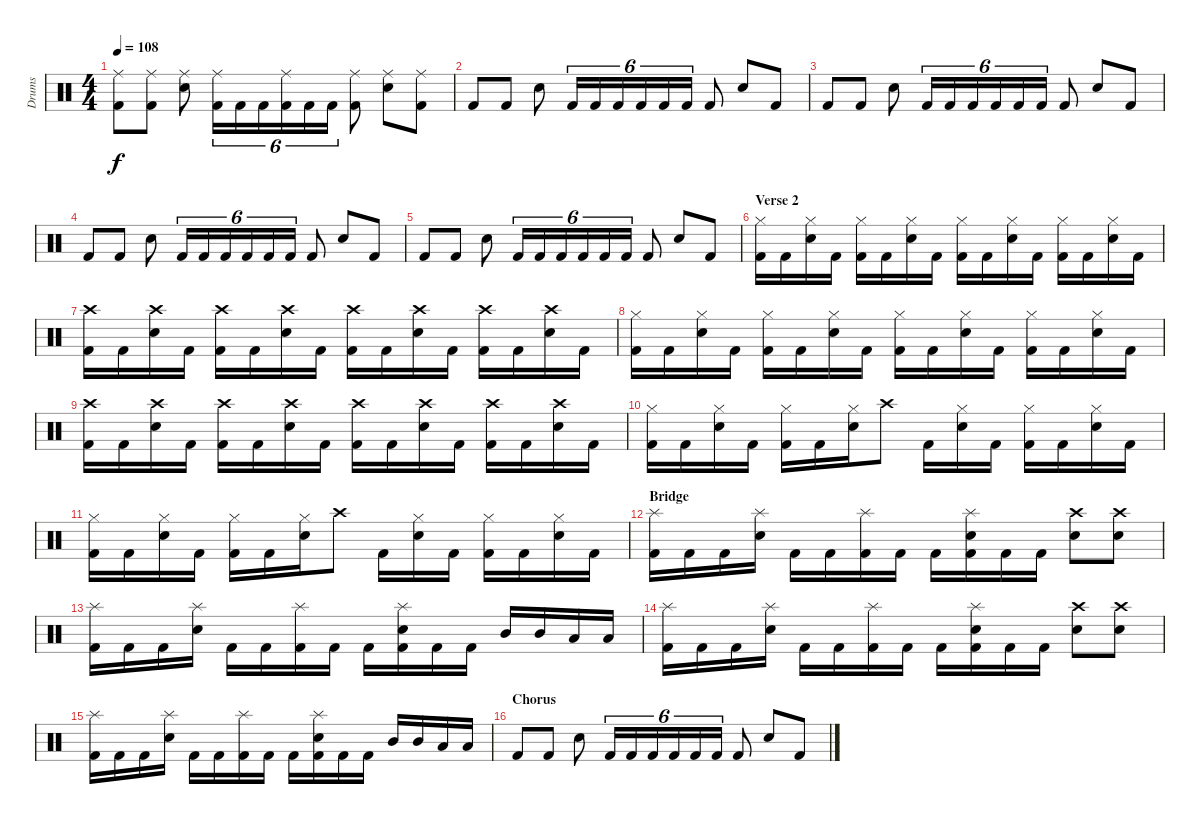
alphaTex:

\track ("Drums" "Drums") {instrument percussion}
\staff {score}
\articulation defaults
\ts (4 4)
\tempo 108
\clef neutral
\ks c
("Ride (middle)" "Kick (hit) 2").8{dy f} ("Ride (middle)" "Kick (hit) 2").8 ("Ride (middle)" "Electric Snare (hit)").8 ("Ride (middle)" "Kick (hit) 2").16{tu (6 4)} "Kick (hit) 2".16{tu (6 4)} "Kick (hit) 2".16{tu (6 4)} ("Ride (middle)" "Kick (hit) 2").16{tu (6 4)} "Kick (hit) 2".16{tu (6 4)} "Kick (hit) 2".16{tu (6 4)} ("Ride (middle)" "Kick (hit) 2").8 ("Ride (middle)" "Electric Snare (hit)").8 ("Ride (middle)" "Kick (hit) 2").8 |
"Kick (hit) 2".8 "Kick (hit) 2".8 "Electric Snare (hit)".8 "Kick (hit) 2".16{tu (6 4)} "Kick (hit) 2".16{tu (6 4)} "Kick (hit) 2".16{tu (6 4)} "Kick (hit) 2".16{tu (6 4)} "Kick (hit) 2".16{tu (6 4)} "Kick (hit) 2".16{tu (6 4)} "Kick (hit) 2".8 "Electric Snare (hit)".8 "Kick (hit) 2".8 |
"Kick (hit) 2".8 "Kick (hit) 2".8 "Electric Snare (hit)".8 "Kick (hit) 2".16{tu (6 4)} "Kick (hit) 2".16{tu (6 4)} "Kick (hit) 2".16{tu (6 4)} "Kick (hit) 2".16{tu (6 4)} "Kick (hit) 2".16{tu (6 4)} "Kick (hit) 2".16{tu (6 4)} "Kick (hit) 2".8 "Electric Snare (hit)".8 "Kick (hit) 2".8 |
"Kick (hit) 2".8 "Kick (hit) 2".8 "Electric Snare (hit)".8 "Kick (hit) 2".16{tu (6 4)} "Kick (hit) 2".16{tu (6 4)} "Kick (hit) 2".16{tu (6 4)} "Kick (hit) 2".16{tu (6 4)} "Kick (hit) 2".16{tu (6 4)} "Kick (hit) 2".16{tu (6 4)} "Kick (hit) 2".8 "Electric Snare (hit)".8 "Kick (hit) 2".8 |
"Kick (hit) 2".8 "Kick (hit) 2".8 "Electric Snare (hit)".8 "Kick (hit) 2".16{tu (6 4)} "Kick (hit) 2".16{tu (6 4)} "Kick (hit) 2".16{tu (6 4)} "Kick (hit) 2".16{tu (6 4)} "Kick (hit) 2".16{tu (6 4)} "Kick (hit) 2".16{tu (6 4)} "Kick (hit) 2".8 "Electric Snare (hit)".8 "Kick (hit) 2".8 |
\section ("" "Verse 2")
("Hi-Hat (closed)" "Kick (hit) 2").16 "Kick (hit) 2".16 ("Hi-Hat (closed)" "Electric Snare (hit)").16 "Kick (hit) 2".16 ("Hi-Hat (closed)" "Kick (hit) 2").16 "Kick (hit) 2".16 ("Hi-Hat (closed)" "Electric Snare (hit)").16 "Kick (hit) 2".16 ("Hi-Hat (closed)" "Kick (hit) 2").16 "Kick (hit) 2".16 ("Hi-Hat (closed)" "Electric Snare (hit)").16 "Kick (hit) 2".16 ("Hi-Hat (closed)" "Kick (hit) 2").16 "Kick (hit) 2".16 ("Hi-Hat (closed)" "Electric Snare (hit)").16 "Kick (hit) 2".16 |
("Crash high (hit)" "Kick (hit) 2").16 "Kick (hit) 2".16 ("Crash high (hit)" "Electric Snare (hit)").16 "Kick (hit) 2".16 ("Crash high (hit)" "Kick (hit) 2").16 "Kick (hit) 2".16 ("Crash high (hit)" "Electric Snare (hit)").16 "Kick (hit) 2".16 ("Crash high (hit)" "Kick (hit) 2").16 "Kick (hit) 2".16 ("Crash high (hit)" "Electric Snare (hit)").16 "Kick (hit) 2".16 ("Crash high (hit)" "Kick (hit) 2").16 "Kick (hit) 2".16 ("Crash high (hit)" "Electric Snare (hit)").16 "Kick (hit) 2".16 |
("Hi-Hat (closed)" "Kick (hit) 2").16 "Kick (hit) 2".16 ("Hi-Hat (closed)" "Electric Snare (hit)").16 "Kick (hit) 2".16 ("Hi-Hat (closed)" "Kick (hit) 2").16 "Kick (hit) 2".16 ("Hi-Hat (closed)" "Electric Snare (hit)").16 "Kick (hit) 2".16 ("Hi-Hat (closed)" "Kick (hit) 2").16 "Kick (hit) 2".16 ("Hi-Hat (closed)" "Electric Snare (hit)").16 "Kick (hit) 2".16 ("Hi-Hat (closed)" "Kick (hit) 2").16 "Kick (hit) 2".16 ("Hi-Hat (closed)" "Electric Snare (hit)").16 "Kick (hit) 2".16 |
("Crash high (hit)" "Kick (hit) 2").16 "Kick (hit) 2".16 ("Crash high (hit)" "Electric Snare (hit)").16 "Kick (hit) 2".16 ("Crash high (hit)" "Kick (hit) 2").16 "Kick (hit) 2".16 ("Crash high (hit)" "Electric Snare (hit)").16 "Kick (hit) 2".16 ("Crash high (hit)" "Kick (hit) 2").16 "Kick (hit) 2".16 ("Crash high (hit)" "Electric Snare (hit)").16 "Kick (hit) 2".16 ("Crash high (hit)" "Kick (hit) 2").16 "Kick (hit) 2".16 ("Crash high (hit)" "Electric Snare (hit)").16 "Kick (hit) 2".16 |
("Hi-Hat (closed)" "Kick (hit) 2").16 "Kick (hit) 2".16 ("Hi-Hat (closed)" "Electric Snare (hit)").16 "Kick (hit) 2".16 ("Hi-Hat (closed)" "Kick (hit) 2").16 "Kick (hit) 2".16 ("Hi-Hat (closed)" "Electric Snare (hit)").16 "Crash high (hit)".8 "Kick (hit) 2".16 ("Hi-Hat (closed)" "Electric Snare (hit)").16 "Kick (hit) 2".16 ("Hi-Hat (closed)" "Kick (hit) 2").16 "Kick (hit) 2".16 ("Hi-Hat (closed)" "Electric Snare (hit)").16 "Kick (hit) 2".16 |
("Hi-Hat (closed)" "Kick (hit) 2").16 "Kick (hit) 2".16 ("Hi-Hat (closed)" "Electric Snare (hit)").16 "Kick (hit) 2".16 ("Hi-Hat (closed)" "Kick (hit) 2").16 "Kick (hit) 2".16 ("Hi-Hat (closed)" "Electric Snare (hit)").16 "Crash high (hit)".8 "Kick (hit) 2".16 ("Hi-Hat (closed)" "Electric Snare (hit)").16 "Kick (hit) 2".16 ("Hi-Hat (closed)" "Kick (hit) 2").16 "Kick (hit) 2".16 ("Hi-Hat (closed)" "Electric Snare (hit)").16 "Kick (hit) 2".16 |
\section ("" "Bridge")
("Splash (hit)" "Kick (hit) 2").16 "Kick (hit) 2".16 "Kick (hit) 2".16 ("Splash (hit)" "Electric Snare (hit)").16 "Kick (hit) 2".16 "Kick (hit) 2".16 ("Splash (hit)" "Kick (hit) 2").16 "Kick (hit) 2".16 "Kick (hit) 2".16 ("Splash (hit)" "Electric Snare (hit)" "Kick (hit) 2").16 "Kick (hit) 2".16 "Kick (hit) 2".16 ("Crash high (hit)" "Electric Snare (hit)").8 ("Crash high (hit)" "Electric Snare (hit)").8 |
("Splash (hit)" "Kick (hit) 2").16 "Kick (hit) 2".16 "Kick (hit) 2".16 ("Splash (hit)" "Electric Snare (hit)").16 "Kick (hit) 2".16 "Kick (hit) 2".16 ("Splash (hit)" "Kick (hit) 2").16 "Kick (hit) 2".16 "Kick (hit) 2".16 ("Splash (hit)" "Electric Snare (hit)" "Kick (hit) 2").16 "Kick (hit) 2".16 "Kick (hit) 2".16 "Mid Tom (hit)".16 "Mid Tom (hit)".16 "Low Floor Tom (hit)".16 "Low Floor Tom (hit)".16 |
("Splash (hit)" "Kick (hit) 2").16 "Kick (hit) 2".16 "Kick (hit) 2".16 ("Splash (hit)" "Electric Snare (hit)").16 "Kick (hit) 2".16 "Kick (hit) 2".16 ("Splash (hit)" "Kick (hit) 2").16 "Kick (hit) 2".16 "Kick (hit) 2".16 ("Splash (hit)" "Electric Snare (hit)" "Kick (hit) 2").16 "Kick (hit) 2".16 "Kick (hit) 2".16 ("Crash high (hit)" "Electric Snare (hit)").8 ("Crash high (hit)" "Electric Snare (hit)").8 |
("Splash (hit)" "Kick (hit) 2").16 "Kick (hit) 2".16 "Kick (hit) 2".16 ("Splash (hit)" "Electric Snare (hit)").16 "Kick (hit) 2".16 "Kick (hit) 2".16 ("Splash (hit)" "Kick (hit) 2").16 "Kick (hit) 2".16 "Kick (hit) 2".16 ("Splash (hit)" "Electric Snare (hit)" "Kick (hit) 2").16 "Kick (hit) 2".16 "Kick (hit) 2".16 "Mid Tom (hit)".16 "Mid Tom (hit)".16 "Low Floor Tom (hit)".16 "Low Floor Tom (hit)".16 |
\section ("" "Chorus")
"Kick (hit) 2".8 "Kick (hit) 2".8 "Electric Snare (hit)".8 "Kick (hit) 2".16{tu (6 4)} "Kick (hit) 2".16{tu (6 4)} "Kick (hit) 2".16{tu (6 4)} "Kick (hit) 2".16{tu (6 4)} "Kick (hit) 2".16{tu (6 4)} "Kick (hit) 2".16{tu (6 4)} "Kick (hit) 2".8 "Electric Snare (hit)".8 "Kick (hit) 2".8
